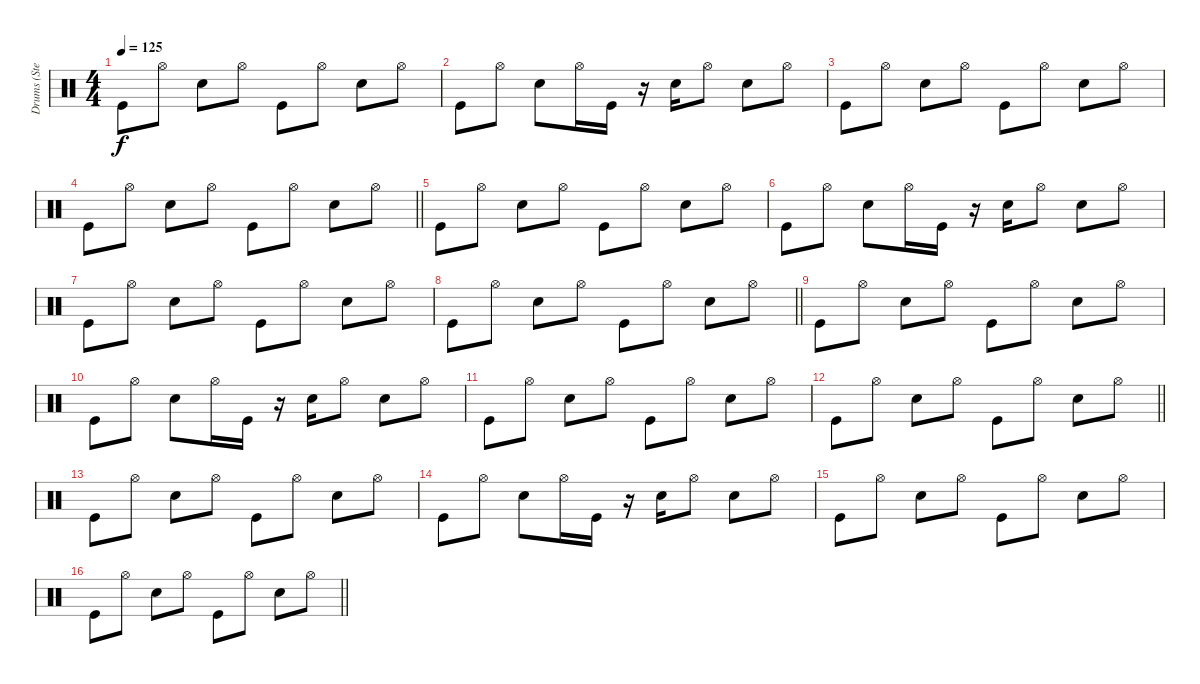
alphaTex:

\track ("Drums (Stephen Morris)" "Drums (Ste") {instrument percussion}
\staff {score}
\articulation defaults
\ts (4 4)
\tempo 125
\clef neutral
\ks c "Kick (hit)".8{dy f} "Hi-Hat (open)".8 "Electric Snare (hit)".8 "Hi-Hat (open)".8 "Kick (hit)".8 "Hi-Hat (open)".8 "Electric Snare (hit)".8 "Hi-Hat (open)".8
|
"Kick (hit)".8 "Hi-Hat (open)".8 "Electric Snare (hit)".8 "Hi-Hat (open)".16 "Kick (hit)".16 r.16 "Electric Snare (hit)".16 "Hi-Hat (open)".8 "Electric Snare (hit)".8 "Hi-Hat (open)".8 |
"Kick (hit)".8 "Hi-Hat (open)".8 "Electric Snare (hit)".8 "Hi-Hat (open)".8 "Kick (hit)".8 "Hi-Hat (open)".8 "Electric Snare (hit)".8 "Hi-Hat (open)".8 |
\barLineRight lightlight "Kick (hit)".8 "Hi-Hat (open)".8 "Electric Snare (hit)".8 "Hi-Hat (open)".8 "Kick (hit)".8 "Hi-Hat (open)".8 "Electric Snare (hit)".8 "Hi-Hat (open)".8
|
"Kick (hit)".8 "Hi-Hat (open)".8 "Electric Snare (hit)".8 "Hi-Hat (open)".8 "Kick (hit)".8 "Hi-Hat (open)".8 "Electric Snare (hit)".8 "Hi-Hat (open)".8 |
"Kick (hit)".8 "Hi-Hat (open)".8 "Electric Snare (hit)".8 "Hi-Hat (open)".16 "Kick (hit)".16 r.16 "Electric Snare (hit)".16 "Hi-Hat (open)".8 "Electric Snare (hit)".8 "Hi-Hat (open)".8 |
"Kick (hit)".8 "Hi-Hat (open)".8 "Electric Snare (hit)".8 "Hi-Hat (open)".8 "Kick (hit)".8 "Hi-Hat (open)".8 "Electric Snare (hit)".8 "Hi-Hat (open)".8 |
\barLineRight lightlight "Kick (hit)".8 "Hi-Hat (open)".8 "Electric Snare (hit)".8 "Hi-Hat (open)".8 "Kick (hit)".8 "Hi-Hat (open)".8 "Electric Snare (hit)".8 "Hi-Hat (open)".8
|
"Kick (hit)".8 "Hi-Hat (open)".8 "Electric Snare (hit)".8 "Hi-Hat (open)".8 "Kick (hit)".8 "Hi-Hat (open)".8 "Electric Snare (hit)".8 "Hi-Hat (open)".8 |
"Kick (hit)".8 "Hi-Hat (open)".8 "Electric Snare (hit)".8 "Hi-Hat (open)".16 "Kick (hit)".16 r.16 "Electric Snare (hit)".16 "Hi-Hat (open)".8 "Electric Snare (hit)".8 "Hi-Hat (open)".8 |
"Kick (hit)".8 "Hi-Hat (open)".8 "Electric Snare (hit)".8 "Hi-Hat (open)".8 "Kick (hit)".8 "Hi-Hat (open)".8 "Electric Snare (hit)".8 "Hi-Hat (open)".8 |
\barLineRight lightlight "Kick (hit)".8 "Hi-Hat (open)".8 "Electric Snare (hit)".8 "Hi-Hat (open)".8 "Kick (hit)".8 "Hi-Hat (open)".8 "Electric Snare (hit)".8 "Hi-Hat (open)".8
|
"Kick (hit)".8 "Hi-Hat (open)".8 "Electric Snare (hit)".8 "Hi-Hat (open)".8 "Kick (hit)".8 "Hi-Hat (open)".8 "Electric Snare (hit)".8 "Hi-Hat (open)".8 |
"Kick (hit)".8 "Hi-Hat (open)".8 "Electric Snare (hit)".8 "Hi-Hat (open)".16 "Kick (hit)".16 r.16 "Electric Snare (hit)".16 "Hi-Hat (open)".8 "Electric Snare (hit)".8 "Hi-Hat (open)".8 |
"Kick (hit)".8 "Hi-Hat (open)".8 "Electric Snare (hit)".8 "Hi-Hat (open)".8 "Kick (hit)".8 "Hi-Hat (open)".8 "Electric Snare (hit)".8 "Hi-Hat (open)".8 |
\barLineRight lightlight "Kick (hit)".8 "Hi-Hat (open)".8 "Electric Snare (hit)".8 "Hi-Hat (open)".8 "Kick (hit)".8 "Hi-Hat (open)".8 "Electric Snare (hit)".8 "Hi-Hat (open)".8
